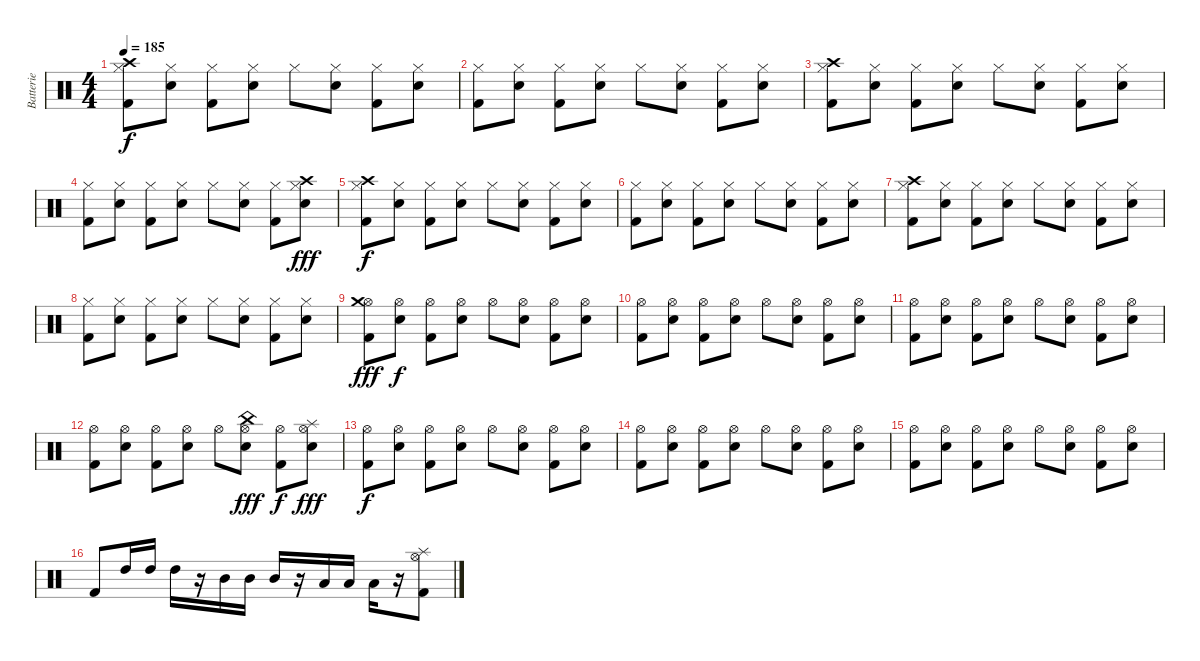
\track ("Batterie" "Batterie") {instrument percussion}
\staff {score}
\articulation defaults
\ts (4 4)
\tempo 185
\clef neutral
\ks c
("Hi-Hat (closed)" "Crash high (hit)" "Kick (hit) 2").8{dy f} ("Hi-Hat (closed)" "Electric Snare (hit)").8 ("Hi-Hat (closed)" "Kick (hit) 2").8 ("Hi-Hat (closed)" "Electric Snare (hit)").8 "Hi-Hat (closed)".8 ("Hi-Hat (closed)" "Electric Snare (hit)").8 ("Hi-Hat (closed)" "Kick (hit) 2").8 ("Hi-Hat (closed)" "Electric Snare (hit)").8 |
("Hi-Hat (closed)" "Kick (hit) 2").8 ("Hi-Hat (closed)" "Electric Snare (hit)").8 ("Hi-Hat (closed)" "Kick (hit) 2").8 ("Hi-Hat (closed)" "Electric Snare (hit)").8 "Hi-Hat (closed)".8 ("Hi-Hat (closed)" "Electric Snare (hit)").8 ("Hi-Hat (closed)" "Kick (hit) 2").8 ("Hi-Hat (closed)" "Electric Snare (hit)").8 |
("Hi-Hat (closed)" "Crash high (hit)" "Kick (hit) 2").8 ("Hi-Hat (closed)" "Electric Snare (hit)").8 ("Hi-Hat (closed)" "Kick (hit) 2").8 ("Hi-Hat (closed)" "Electric Snare (hit)").8 "Hi-Hat (closed)".8 ("Hi-Hat (closed)" "Electric Snare (hit)").8 ("Hi-Hat (closed)" "Kick (hit) 2").8 ("Hi-Hat (closed)" "Electric Snare (hit)").8 |
("Hi-Hat (closed)" "Kick (hit) 2").8 ("Hi-Hat (closed)" "Electric Snare (hit)").8 ("Hi-Hat (closed)" "Kick (hit) 2").8 ("Hi-Hat (closed)" "Electric Snare (hit)").8 "Hi-Hat (closed)".8 ("Hi-Hat (closed)" "Electric Snare (hit)").8 ("Hi-Hat (closed)" "Kick (hit) 2").8 ("Hi-Hat (closed)" "Crash high (hit)" "Electric Snare (hit)").8{dy fff} |
("Hi-Hat (closed)" "Crash high (hit)" "Kick (hit) 2").8{dy f} ("Hi-Hat (closed)" "Electric Snare (hit)").8 ("Hi-Hat (closed)" "Kick (hit) 2").8 ("Hi-Hat (closed)" "Electric Snare (hit)").8 "Hi-Hat (closed)".8 ("Hi-Hat (closed)" "Electric Snare (hit)").8 ("Hi-Hat (closed)" "Kick (hit) 2").8 ("Hi-Hat (closed)" "Electric Snare (hit)").8 |
("Hi-Hat (closed)" "Kick (hit) 2").8 ("Hi-Hat (closed)" "Electric Snare (hit)").8 ("Hi-Hat (closed)" "Kick (hit) 2").8 ("Hi-Hat (closed)" "Electric Snare (hit)").8 "Hi-Hat (closed)".8 ("Hi-Hat (closed)" "Electric Snare (hit)").8 ("Hi-Hat (closed)" "Kick (hit) 2").8 ("Hi-Hat (closed)" "Electric Snare (hit)").8 |
("Hi-Hat (closed)" "Crash high (hit)" "Kick (hit) 2").8 ("Hi-Hat (closed)" "Electric Snare (hit)").8 ("Hi-Hat (closed)" "Kick (hit) 2").8 ("Hi-Hat (closed)" "Electric Snare (hit)").8 "Hi-Hat (closed)".8 ("Hi-Hat (closed)" "Electric Snare (hit)").8 ("Hi-Hat (closed)" "Kick (hit) 2").8 ("Hi-Hat (closed)" "Electric Snare (hit)").8 |
("Hi-Hat (closed)" "Kick (hit) 2").8 ("Hi-Hat (closed)" "Electric Snare (hit)").8 ("Hi-Hat (closed)" "Kick (hit) 2").8 ("Hi-Hat (closed)" "Electric Snare (hit)").8 "Hi-Hat (closed)".8 ("Hi-Hat (closed)" "Electric Snare (hit)").8 ("Hi-Hat (closed)" "Kick (hit) 2").8 ("Hi-Hat (closed)" "Electric Snare (hit)").8 |
("Hi-Hat (open)" "Crash medium (hit)" "Kick (hit) 2").8{dy fff} ("Hi-Hat (open)" "Electric Snare (hit)").8{dy f} ("Hi-Hat (open)" "Kick (hit) 2").8 ("Hi-Hat (open)" "Electric Snare (hit)").8 "Hi-Hat (open)".8 ("Hi-Hat (open)" "Electric Snare (hit)").8 ("Hi-Hat (open)" "Kick (hit) 2").8 ("Hi-Hat (open)" "Electric Snare (hit)").8 |
("Hi-Hat (open)" "Kick (hit) 2").8 ("Hi-Hat (open)" "Electric Snare (hit)").8 ("Hi-Hat (open)" "Kick (hit) 2").8 ("Hi-Hat (open)" "Electric Snare (hit)").8 "Hi-Hat (open)".8 ("Hi-Hat (open)" "Electric Snare (hit)").8 ("Hi-Hat (open)" "Kick (hit) 2").8 ("Hi-Hat (open)" "Electric Snare (hit)").8 |
("Hi-Hat (open)" "Kick (hit) 2").8 ("Hi-Hat (open)" "Electric Snare (hit)").8 ("Hi-Hat (open)" "Kick (hit) 2").8 ("Hi-Hat (open)" "Electric Snare (hit)").8 "Hi-Hat (open)".8 ("Hi-Hat (open)" "Electric Snare (hit)").8 ("Hi-Hat (open)" "Kick (hit) 2").8 ("Hi-Hat (open)" "Electric Snare (hit)").8 |
("Hi-Hat (open)" "Kick (hit) 2").8 ("Hi-Hat (open)" "Electric Snare (hit)").8 ("Hi-Hat (open)" "Kick (hit) 2").8 ("Hi-Hat (open)" "Electric Snare (hit)").8 "Hi-Hat (open)".8 ("Hi-Hat (open)" "China (hit)" "Electric Snare (hit)").8{dy fff} ("Hi-Hat (open)" "Kick (hit) 2").8{dy f} ("Hi-Hat (open)" "Splash (hit)" "Electric Snare (hit)").8{dy fff} |
("Hi-Hat (open)" "Kick (hit) 2").8{dy f} ("Hi-Hat (open)" "Electric Snare (hit)").8 ("Hi-Hat (open)" "Kick (hit) 2").8 ("Hi-Hat (open)" "Electric Snare (hit)").8 "Hi-Hat (open)".8 ("Hi-Hat (open)" "Electric Snare (hit)").8 ("Hi-Hat (open)" "Kick (hit) 2").8 ("Hi-Hat (open)" "Electric Snare (hit)").8 |
("Hi-Hat (open)" "Kick (hit) 2").8 ("Hi-Hat (open)" "Electric Snare (hit)").8 ("Hi-Hat (open)" "Kick (hit) 2").8 ("Hi-Hat (open)" "Electric Snare (hit)").8 "Hi-Hat (open)".8 ("Hi-Hat (open)" "Electric Snare (hit)").8 ("Hi-Hat (open)" "Kick (hit) 2").8 ("Hi-Hat (open)" "Electric Snare (hit)").8 |
("Hi-Hat (open)" "Kick (hit) 2").8 ("Hi-Hat (open)" "Electric Snare (hit)").8 ("Hi-Hat (open)" "Kick (hit) 2").8 ("Hi-Hat (open)" "Electric Snare (hit)").8 "Hi-Hat (open)".8 ("Hi-Hat (open)" "Electric Snare (hit)").8 ("Hi-Hat (open)" "Kick (hit) 2").8 ("Hi-Hat (open)" "Electric Snare (hit)").8 |
"Kick (hit) 2".8 "High Tom (hit)".16 "High Tom (hit)".16 "High Tom (hit)".16 r.16 "Mid Tom (hit)".16 "Mid Tom (hit)".16 "Mid Tom (hit)".16 r.16 "Low Tom (hit)".16 "Low Tom (hit)".16 "Low Tom (hit)".16 r.16 ("Splash (hit)" "Hi-Hat (open)" "Kick (hit) 2").8
